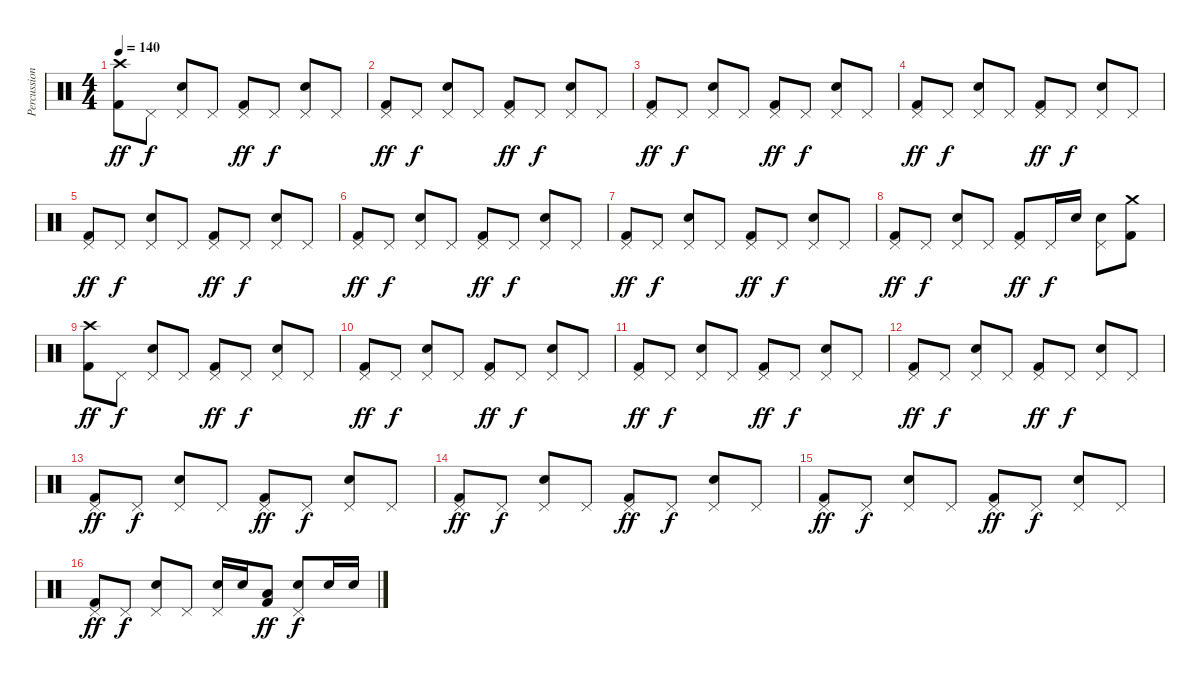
\track ("Percussion" "Percussion") {instrument percussion}
\staff {score}
\articulation defaults
\ts (4 4)
\tempo 140
\clef neutral
\ks c
("Crash high (hit)" "Kick (hit) 2").8{dy ff} "Pedal Hi-Hat (hit)".8{dy f} ("Pedal Hi-Hat (hit)" "Snare (hit) 2").8 "Pedal Hi-Hat (hit)".8 ("Pedal Hi-Hat (hit)" "Kick (hit) 2").8{dy ff} "Pedal Hi-Hat (hit)".8{dy f} ("Pedal Hi-Hat (hit)" "Snare (hit) 2").8 "Pedal Hi-Hat (hit)".8 |
("Pedal Hi-Hat (hit)" "Kick (hit) 2").8{dy ff} "Pedal Hi-Hat (hit)".8{dy f} ("Pedal Hi-Hat (hit)" "Snare (hit) 2").8 "Pedal Hi-Hat (hit)".8 ("Pedal Hi-Hat (hit)" "Kick (hit) 2").8{dy ff} "Pedal Hi-Hat (hit)".8{dy f} ("Pedal Hi-Hat (hit)" "Snare (hit) 2").8 "Pedal Hi-Hat (hit)".8 |
("Pedal Hi-Hat (hit)" "Kick (hit) 2").8{dy ff} "Pedal Hi-Hat (hit)".8{dy f} ("Pedal Hi-Hat (hit)" "Snare (hit) 2").8 "Pedal Hi-Hat (hit)".8 ("Pedal Hi-Hat (hit)" "Kick (hit) 2").8{dy ff} "Pedal Hi-Hat (hit)".8{dy f} ("Pedal Hi-Hat (hit)" "Snare (hit) 2").8 "Pedal Hi-Hat (hit)".8 |
("Pedal Hi-Hat (hit)" "Kick (hit) 2").8{dy ff} "Pedal Hi-Hat (hit)".8{dy f} ("Pedal Hi-Hat (hit)" "Snare (hit) 2").8 "Pedal Hi-Hat (hit)".8 ("Pedal Hi-Hat (hit)" "Kick (hit) 2").8{dy ff} "Pedal Hi-Hat (hit)".8{dy f} ("Pedal Hi-Hat (hit)" "Snare (hit) 2").8 "Pedal Hi-Hat (hit)".8 |
("Pedal Hi-Hat (hit)" "Kick (hit) 2").8{dy ff} "Pedal Hi-Hat (hit)".8{dy f} ("Pedal Hi-Hat (hit)" "Snare (hit) 2").8 "Pedal Hi-Hat (hit)".8 ("Pedal Hi-Hat (hit)" "Kick (hit) 2").8{dy ff} "Pedal Hi-Hat (hit)".8{dy f} ("Pedal Hi-Hat (hit)" "Snare (hit) 2").8 "Pedal Hi-Hat (hit)".8 |
("Pedal Hi-Hat (hit)" "Kick (hit) 2").8{dy ff} "Pedal Hi-Hat (hit)".8{dy f} ("Pedal Hi-Hat (hit)" "Snare (hit) 2").8 "Pedal Hi-Hat (hit)".8 ("Pedal Hi-Hat (hit)" "Kick (hit) 2").8{dy ff} "Pedal Hi-Hat (hit)".8{dy f} ("Pedal Hi-Hat (hit)" "Snare (hit) 2").8 "Pedal Hi-Hat (hit)".8 |
("Pedal Hi-Hat (hit)" "Kick (hit) 2").8{dy ff} "Pedal Hi-Hat (hit)".8{dy f} ("Pedal Hi-Hat (hit)" "Snare (hit) 2").8 "Pedal Hi-Hat (hit)".8 ("Pedal Hi-Hat (hit)" "Kick (hit) 2").8{dy ff} "Pedal Hi-Hat (hit)".8{dy f} ("Pedal Hi-Hat (hit)" "Snare (hit) 2").8 "Pedal Hi-Hat (hit)".8 |
("Pedal Hi-Hat (hit)" "Kick (hit) 2").8{dy ff} "Pedal Hi-Hat (hit)".8{dy f} ("Pedal Hi-Hat (hit)" "Snare (hit) 2").8 "Pedal Hi-Hat (hit)".8 ("Pedal Hi-Hat (hit)" "Kick (hit) 2").8{dy ff} "Pedal Hi-Hat (hit)".16{dy f} "Snare (hit) 2".16 ("Pedal Hi-Hat (hit)" "Snare (hit) 2").8 ("Crash medium (hit)" "Kick (hit) 2").8 |
("Crash high (hit)" "Kick (hit) 2").8{dy ff} "Pedal Hi-Hat (hit)".8{dy f} ("Pedal Hi-Hat (hit)" "Snare (hit) 2").8 "Pedal Hi-Hat (hit)".8 ("Pedal Hi-Hat (hit)" "Kick (hit) 2").8{dy ff} "Pedal Hi-Hat (hit)".8{dy f} ("Pedal Hi-Hat (hit)" "Snare (hit) 2").8 "Pedal Hi-Hat (hit)".8 |
("Pedal Hi-Hat (hit)" "Kick (hit) 2").8{dy ff} "Pedal Hi-Hat (hit)".8{dy f} ("Pedal Hi-Hat (hit)" "Snare (hit) 2").8 "Pedal Hi-Hat (hit)".8 ("Pedal Hi-Hat (hit)" "Kick (hit) 2").8{dy ff} "Pedal Hi-Hat (hit)".8{dy f} ("Pedal Hi-Hat (hit)" "Snare (hit) 2").8 "Pedal Hi-Hat (hit)".8 |
("Pedal Hi-Hat (hit)" "Kick (hit) 2").8{dy ff} "Pedal Hi-Hat (hit)".8{dy f} ("Pedal Hi-Hat (hit)" "Snare (hit) 2").8 "Pedal Hi-Hat (hit)".8 ("Pedal Hi-Hat (hit)" "Kick (hit) 2").8{dy ff} "Pedal Hi-Hat (hit)".8{dy f} ("Pedal Hi-Hat (hit)" "Snare (hit) 2").8 "Pedal Hi-Hat (hit)".8 |
("Pedal Hi-Hat (hit)" "Kick (hit) 2").8{dy ff} "Pedal Hi-Hat (hit)".8{dy f} ("Pedal Hi-Hat (hit)" "Snare (hit) 2").8 "Pedal Hi-Hat (hit)".8 ("Pedal Hi-Hat (hit)" "Kick (hit) 2").8{dy ff} "Pedal Hi-Hat (hit)".8{dy f} ("Pedal Hi-Hat (hit)" "Snare (hit) 2").8 "Pedal Hi-Hat (hit)".8 |
("Pedal Hi-Hat (hit)" "Kick (hit) 2").8{dy ff} "Pedal Hi-Hat (hit)".8{dy f} ("Pedal Hi-Hat (hit)" "Snare (hit) 2").8 "Pedal Hi-Hat (hit)".8 ("Pedal Hi-Hat (hit)" "Kick (hit) 2").8{dy ff} "Pedal Hi-Hat (hit)".8{dy f} ("Pedal Hi-Hat (hit)" "Snare (hit) 2").8 "Pedal Hi-Hat (hit)".8 |
("Pedal Hi-Hat (hit)" "Kick (hit) 2").8{dy ff} "Pedal Hi-Hat (hit)".8{dy f} ("Pedal Hi-Hat (hit)" "Snare (hit) 2").8 "Pedal Hi-Hat (hit)".8 ("Pedal Hi-Hat (hit)" "Kick (hit) 2").8{dy ff} "Pedal Hi-Hat (hit)".8{dy f} ("Pedal Hi-Hat (hit)" "Snare (hit) 2").8 "Pedal Hi-Hat (hit)".8 |
("Pedal Hi-Hat (hit)" "Kick (hit) 2").8{dy ff} "Pedal Hi-Hat (hit)".8{dy f} ("Pedal Hi-Hat (hit)" "Snare (hit) 2").8 "Pedal Hi-Hat (hit)".8 ("Pedal Hi-Hat (hit)" "Kick (hit) 2").8{dy ff} "Pedal Hi-Hat (hit)".8{dy f} ("Pedal Hi-Hat (hit)" "Snare (hit) 2").8 "Pedal Hi-Hat (hit)".8 |
("Pedal Hi-Hat (hit)" "Kick (hit) 2").8{dy ff} "Pedal Hi-Hat (hit)".8{dy f} ("Pedal Hi-Hat (hit)" "Snare (hit) 2").8 "Pedal Hi-Hat (hit)".8 ("Pedal Hi-Hat (hit)" "Snare (hit) 2").16 "Snare (hit) 2".16 ("Low Tom (hit)" "Kick (hit) 2").8{dy ff} ("Pedal Hi-Hat (hit)" "Snare (hit) 2").8{dy f} "Snare (hit) 2".16 "Snare (hit) 2".16
